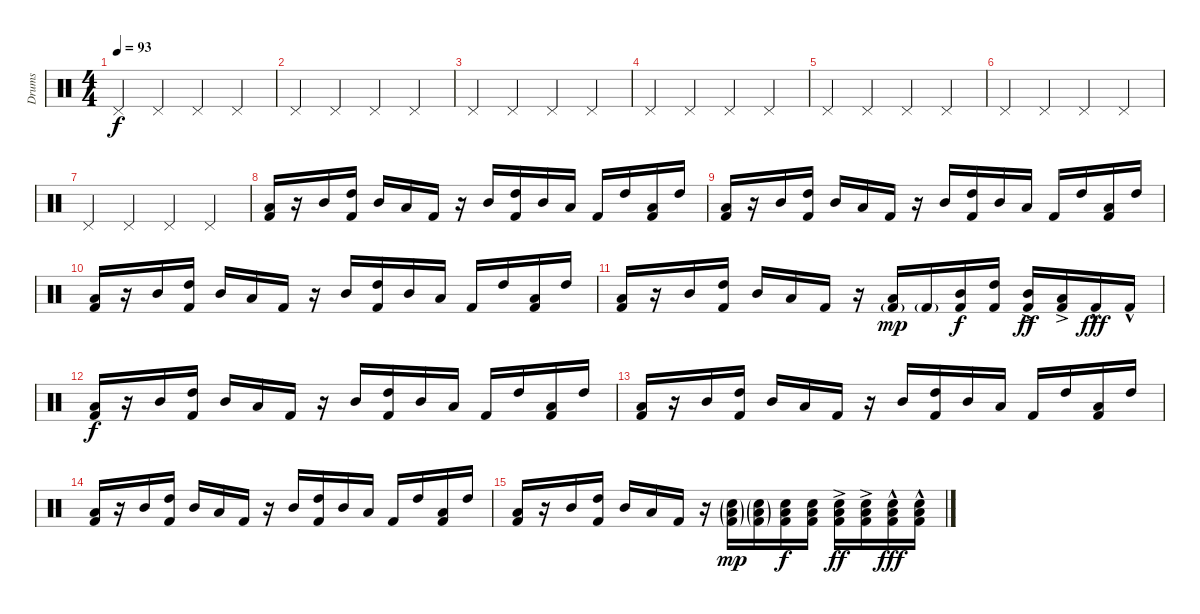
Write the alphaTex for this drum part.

\track ("Drums" "Drums") {instrument percussion}
\staff {score}
\articulation defaults
\ts (4 4)
\tempo 93
\clef neutral
\ks c "Pedal Hi-Hat (hit)".4{dy f} "Pedal Hi-Hat (hit)".4 "Pedal Hi-Hat (hit)".4 "Pedal Hi-Hat (hit)".4
|
"Pedal Hi-Hat (hit)".4 "Pedal Hi-Hat (hit)".4 "Pedal Hi-Hat (hit)".4 "Pedal Hi-Hat (hit)".4 |
"Pedal Hi-Hat (hit)".4 "Pedal Hi-Hat (hit)".4 "Pedal Hi-Hat (hit)".4 "Pedal Hi-Hat (hit)".4 |
"Pedal Hi-Hat (hit)".4 "Pedal Hi-Hat (hit)".4 "Pedal Hi-Hat (hit)".4 "Pedal Hi-Hat (hit)".4 |
"Pedal Hi-Hat (hit)".4 "Pedal Hi-Hat (hit)".4 "Pedal Hi-Hat (hit)".4 "Pedal Hi-Hat (hit)".4 |
"Pedal Hi-Hat (hit)".4 "Pedal Hi-Hat (hit)".4 "Pedal Hi-Hat (hit)".4 "Pedal Hi-Hat (hit)".4 |
"Pedal Hi-Hat (hit)".4 "Pedal Hi-Hat (hit)".4 "Pedal Hi-Hat (hit)".4 "Pedal Hi-Hat (hit)".4 |
("Low Tom (hit)" "Kick (hit) 2").16 r.16 "Mid Tom (hit)".16 ("High Tom (hit)" "Kick (hit) 2").16 "Mid Tom (hit)".16 "Low Tom (hit)".16 "Kick (hit) 2".16 r.16 "Mid Tom (hit)".16 ("High Tom (hit)" "Kick (hit) 2").16 "Mid Tom (hit)".16 "Low Tom (hit)".16 "Kick (hit) 2".16 "High Tom (hit)".16 ("Low Tom (hit)" "Kick (hit) 2").16 "High Tom (hit)".16 |
("Low Tom (hit)" "Kick (hit) 2").16 r.16 "Mid Tom (hit)".16 ("High Tom (hit)" "Kick (hit) 2").16 "Mid Tom (hit)".16 "Low Tom (hit)".16 "Kick (hit) 2".16 r.16 "Mid Tom (hit)".16 ("High Tom (hit)" "Kick (hit) 2").16 "Mid Tom (hit)".16 "Low Tom (hit)".16 "Kick (hit) 2".16 "High Tom (hit)".16 ("Low Tom (hit)" "Kick (hit) 2").16 "High Tom (hit)".16 |
("Low Tom (hit)" "Kick (hit) 2").16 r.16 "Mid Tom (hit)".16 ("High Tom (hit)" "Kick (hit) 2").16 "Mid Tom (hit)".16 "Low Tom (hit)".16 "Kick (hit) 2".16 r.16 "Mid Tom (hit)".16 ("High Tom (hit)" "Kick (hit) 2").16 "Mid Tom (hit)".16 "Low Tom (hit)".16 "Kick (hit) 2".16 "High Tom (hit)".16 ("Low Tom (hit)" "Kick (hit) 2").16 "High Tom (hit)".16 |
("Low Tom (hit)" "Kick (hit) 2").16 r.16 "Mid Tom (hit)".16 ("High Tom (hit)" "Kick (hit) 2").16 "Mid Tom (hit)".16 "Low Tom (hit)".16 "Kick (hit) 2".16 r.16 ("Low Tom (hit)" "Kick (hit) 2"{g}).16{dy mp} "Kick (hit) 2"{g}.16 ("Mid Tom (hit)" "Kick (hit) 2").16{dy f} ("High Tom (hit)" "Kick (hit) 2").16 ("Mid Tom (hit)" "Kick (hit) 2"{ac}).16{dy ff} ("Low Tom (hit)" "Kick (hit) 2"{ac}).16 "Kick (hit) 2"{hac}.16{dy fff} "Kick (hit) 2"{hac}.16 |
("Low Tom (hit)" "Kick (hit) 2").16{dy f} r.16 "Mid Tom (hit)".16 ("High Tom (hit)" "Kick (hit) 2").16 "Mid Tom (hit)".16 "Low Tom (hit)".16 "Kick (hit) 2".16 r.16 "Mid Tom (hit)".16 ("High Tom (hit)" "Kick (hit) 2").16 "Mid Tom (hit)".16 "Low Tom (hit)".16 "Kick (hit) 2".16 "High Tom (hit)".16 ("Low Tom (hit)" "Kick (hit) 2").16 "High Tom (hit)".16 |
("Low Tom (hit)" "Kick (hit) 2").16 r.16 "Mid Tom (hit)".16 ("High Tom (hit)" "Kick (hit) 2").16 "Mid Tom (hit)".16 "Low Tom (hit)".16 "Kick (hit) 2".16 r.16 "Mid Tom (hit)".16 ("High Tom (hit)" "Kick (hit) 2").16 "Mid Tom (hit)".16 "Low Tom (hit)".16 "Kick (hit) 2".16 "High Tom (hit)".16 ("Low Tom (hit)" "Kick (hit) 2").16 "High Tom (hit)".16 |
("Low Tom (hit)" "Kick (hit) 2").16 r.16 "Mid Tom (hit)".16 ("High Tom (hit)" "Kick (hit) 2").16 "Mid Tom (hit)".16 "Low Tom (hit)".16 "Kick (hit) 2".16 r.16 "Mid Tom (hit)".16 ("High Tom (hit)" "Kick (hit) 2").16 "Mid Tom (hit)".16 "Low Tom (hit)".16 "Kick (hit) 2".16 "High Tom (hit)".16 ("Low Tom (hit)" "Kick (hit) 2").16 "High Tom (hit)".16 |
("Low Tom (hit)" "Kick (hit) 2").16 r.16 "Mid Tom (hit)".16 ("High Tom (hit)" "Kick (hit) 2").16 "Mid Tom (hit)".16 "Low Tom (hit)".16 "Kick (hit) 2".16 r.16 ("Low Tom (hit)"{g} "Snare (hit) 2"{g} "Kick (hit) 2"{g}).16{dy mp} ("Low Tom (hit)"{g} "Snare (hit) 2"{g} "Kick (hit) 2"{g}).16 ("Low Tom (hit)" "Snare (hit) 2" "Kick (hit) 2").16{dy f} ("Low Tom (hit)" "Snare (hit) 2" "Kick (hit) 2").16 ("Low Tom (hit)"{ac} "Snare (hit) 2"{ac} "Kick (hit) 2"{ac}).16{dy ff} ("Low Tom (hit)"{ac} "Snare (hit) 2"{ac} "Kick (hit) 2"{ac}).16 ("Low Tom (hit)"{hac} "Snare (hit) 2"{hac} "Kick (hit) 2"{hac}).16{dy fff} ("Low Tom (hit)"{hac} "Snare (hit) 2"{hac} "Kick (hit) 2"{hac}).16
